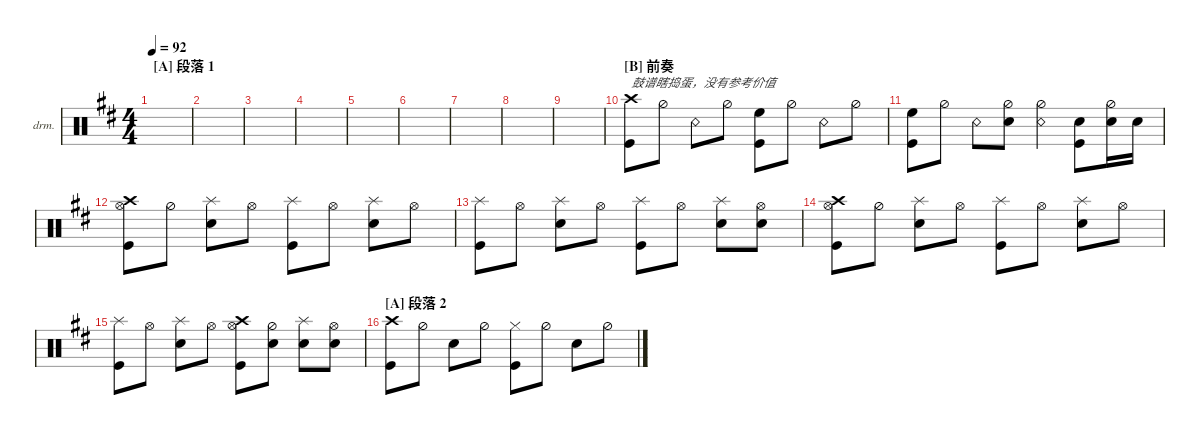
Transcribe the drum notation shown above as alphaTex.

\defaultSystemsLayout 4
\hideDynamics
\bracketExtendMode nobrackets
\firstSystemTrackNameOrientation horizontal
\otherSystemsTrackNameOrientation horizontal
\track ("Drumkit" "drm.") {instrument percussion}
\staff {score}
\articulation defaults
\ts (4 4)
\section ("A" "段落 1")
\tempo 92
\clef neutral
\ks d
|
|
|
|
|
|
|
|
|
\section ("B" "前奏 ")
("Crash high (hit)" "Kick (hit)").8{txt "鼓谱瞎捣蛋，没有参考价值"} "Hi-Hat (half)".8 "Snare (rim shot)".8 "Hi-Hat (half)".8 ("Kick (hit)" "High Floor Tom (hit)").8 "Hi-Hat (half)".8 "Snare (rim shot)".8 "Hi-Hat (half)".8 |
("Kick (hit)" "High Floor Tom (hit)").8 "Hi-Hat (half)".8 "Snare (rim shot)".8 ("Hi-Hat (half)" "Snare (hit) 2").8 ("Snare (rim shot)" "Hi-Hat (half)").4 ("Kick (hit)" "Snare (hit) 2").8 ("Snare (hit) 2" "Hi-Hat (half)").16 "Snare (hit) 2".16 |
("Crash high (hit)" "Kick (hit)" "Hi-Hat (open)").8 "Hi-Hat (half)".8 ("Snare (hit) 2" "Splash (hit)").8 "Hi-Hat (open)".8 ("Kick (hit)" "Splash (hit)").8 "Hi-Hat (open)".8 ("Snare (hit) 2" "Splash (hit)").8 "Hi-Hat (open)".8 |
("Kick (hit)" "Splash (hit)").8 "Hi-Hat (open)".8 ("Snare (hit) 2" "Splash (hit)").8 "Hi-Hat (open)".8 ("Kick (hit)" "Splash (hit)").8 "Hi-Hat (open)".8 ("Snare (hit) 2" "Splash (hit)").8 ("Snare (hit) 2" "Hi-Hat (open)").8 |
("Crash high (hit)" "Kick (hit)" "Hi-Hat (open)").8 "Hi-Hat (half)".8 ("Snare (hit) 2" "Splash (hit)").8 "Hi-Hat (open)".8 ("Kick (hit)" "Splash (hit)").8 "Hi-Hat (open)".8 ("Snare (hit) 2" "Splash (hit)").8 "Hi-Hat (open)".8 |
("Kick (hit)" "Splash (hit)").8 "Hi-Hat (open)".8 ("Snare (hit) 2" "Splash (hit)").8 "Hi-Hat (open)".8 ("Crash high (hit)" "Kick (hit)" "Hi-Hat (open)").8 ("Hi-Hat (half)" "Snare (hit) 2").8 ("Snare (hit) 2" "Splash (hit)").8 ("Snare (hit) 2" "Hi-Hat (open)").8 |
\section ("A" "段落 2")
("Kick (hit)" "Crash high (hit)").8 "Hi-Hat (half)".8 "Snare (hit) 2".8 "Hi-Hat (half)".8 ("Hi-Hat (closed)" "Kick (hit)").8 "Hi-Hat (half)".8 "Snare (hit) 2".8 "Hi-Hat (half)".8
